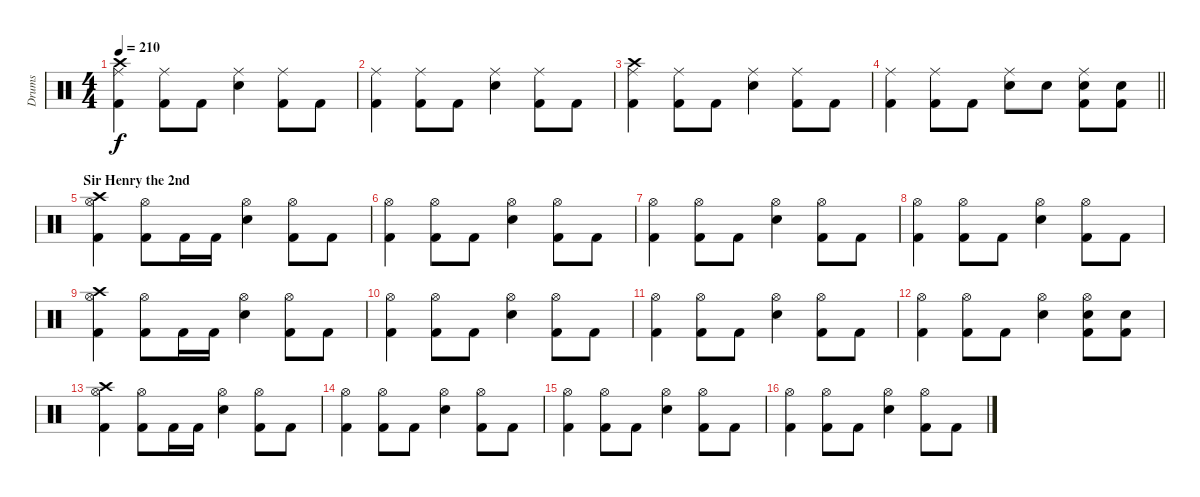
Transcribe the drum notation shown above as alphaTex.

\track ("Drums" "Drums") {instrument percussion}
\staff {score}
\articulation defaults
\ts (4 4)
\tempo 210
\clef neutral
\ks c
("Crash high (hit)" "Ride (middle)" "Kick (hit) 2").4{dy f} ("Ride (middle)" "Kick (hit) 2").8 "Kick (hit) 2".8 ("Ride (middle)" "Snare (hit) 2").4 ("Ride (middle)" "Kick (hit) 2").8 "Kick (hit) 2".8 |
("Ride (middle)" "Kick (hit) 2").4 ("Ride (middle)" "Kick (hit) 2").8 "Kick (hit) 2".8 ("Ride (middle)" "Snare (hit) 2").4 ("Ride (middle)" "Kick (hit) 2").8 "Kick (hit) 2".8 |
("Crash high (hit)" "Ride (middle)" "Kick (hit) 2").4 ("Ride (middle)" "Kick (hit) 2").8 "Kick (hit) 2".8 ("Ride (middle)" "Snare (hit) 2").4 ("Ride (middle)" "Kick (hit) 2").8 "Kick (hit) 2".8 |
\barLineRight lightlight
("Ride (middle)" "Kick (hit) 2").4 ("Ride (middle)" "Kick (hit) 2").8 "Kick (hit) 2".8 ("Ride (middle)" "Snare (hit) 2").8 "Snare (hit) 2".8 ("Ride (middle)" "Snare (hit) 2" "Kick (hit) 2").8 ("Snare (hit) 2" "Kick (hit) 2").8 |
\section ("" "Sir Henry the 2nd")
("Crash high (hit)" "Hi-Hat (open)" "Kick (hit) 2").4 ("Hi-Hat (open)" "Kick (hit) 2").8 "Kick (hit) 2".16 "Kick (hit) 2".16 ("Hi-Hat (open)" "Snare (hit) 2").4 ("Hi-Hat (open)" "Kick (hit) 2").8 "Kick (hit) 2".8 |
("Hi-Hat (open)" "Kick (hit) 2").4 ("Hi-Hat (open)" "Kick (hit) 2").8 "Kick (hit) 2".8 ("Hi-Hat (open)" "Snare (hit) 2").4 ("Hi-Hat (open)" "Kick (hit) 2").8 "Kick (hit) 2".8 |
("Hi-Hat (open)" "Kick (hit) 2").4 ("Hi-Hat (open)" "Kick (hit) 2").8 "Kick (hit) 2".8 ("Hi-Hat (open)" "Snare (hit) 2").4 ("Hi-Hat (open)" "Kick (hit) 2").8 "Kick (hit) 2".8 |
("Hi-Hat (open)" "Kick (hit) 2").4 ("Hi-Hat (open)" "Kick (hit) 2").8 "Kick (hit) 2".8 ("Hi-Hat (open)" "Snare (hit) 2").4 ("Hi-Hat (open)" "Kick (hit) 2").8 "Kick (hit) 2".8 |
("Crash high (hit)" "Hi-Hat (open)" "Kick (hit) 2").4 ("Hi-Hat (open)" "Kick (hit) 2").8 "Kick (hit) 2".16 "Kick (hit) 2".16 ("Hi-Hat (open)" "Snare (hit) 2").4 ("Hi-Hat (open)" "Kick (hit) 2").8 "Kick (hit) 2".8 |
("Hi-Hat (open)" "Kick (hit) 2").4 ("Hi-Hat (open)" "Kick (hit) 2").8 "Kick (hit) 2".8 ("Hi-Hat (open)" "Snare (hit) 2").4 ("Hi-Hat (open)" "Kick (hit) 2").8 "Kick (hit) 2".8 |
("Hi-Hat (open)" "Kick (hit) 2").4 ("Hi-Hat (open)" "Kick (hit) 2").8 "Kick (hit) 2".8 ("Hi-Hat (open)" "Snare (hit) 2").4 ("Hi-Hat (open)" "Kick (hit) 2").8 "Kick (hit) 2".8 |
("Hi-Hat (open)" "Kick (hit) 2").4 ("Hi-Hat (open)" "Kick (hit) 2").8 "Kick (hit) 2".8 ("Hi-Hat (open)" "Snare (hit) 2").4 ("Hi-Hat (open)" "Snare (hit) 2" "Kick (hit) 2").8 ("Snare (hit) 2" "Kick (hit) 2").8 |
("Crash high (hit)" "Hi-Hat (open)" "Kick (hit) 2").4 ("Hi-Hat (open)" "Kick (hit) 2").8 "Kick (hit) 2".16 "Kick (hit) 2".16 ("Hi-Hat (open)" "Snare (hit) 2").4 ("Hi-Hat (open)" "Kick (hit) 2").8 "Kick (hit) 2".8 |
("Hi-Hat (open)" "Kick (hit) 2").4 ("Hi-Hat (open)" "Kick (hit) 2").8 "Kick (hit) 2".8 ("Hi-Hat (open)" "Snare (hit) 2").4 ("Hi-Hat (open)" "Kick (hit) 2").8 "Kick (hit) 2".8 |
("Hi-Hat (open)" "Kick (hit) 2").4 ("Hi-Hat (open)" "Kick (hit) 2").8 "Kick (hit) 2".8 ("Hi-Hat (open)" "Snare (hit) 2").4 ("Hi-Hat (open)" "Kick (hit) 2").8 "Kick (hit) 2".8 |
("Hi-Hat (open)" "Kick (hit) 2").4 ("Hi-Hat (open)" "Kick (hit) 2").8 "Kick (hit) 2".8 ("Hi-Hat (open)" "Snare (hit) 2").4 ("Hi-Hat (open)" "Kick (hit) 2").8 "Kick (hit) 2".8
